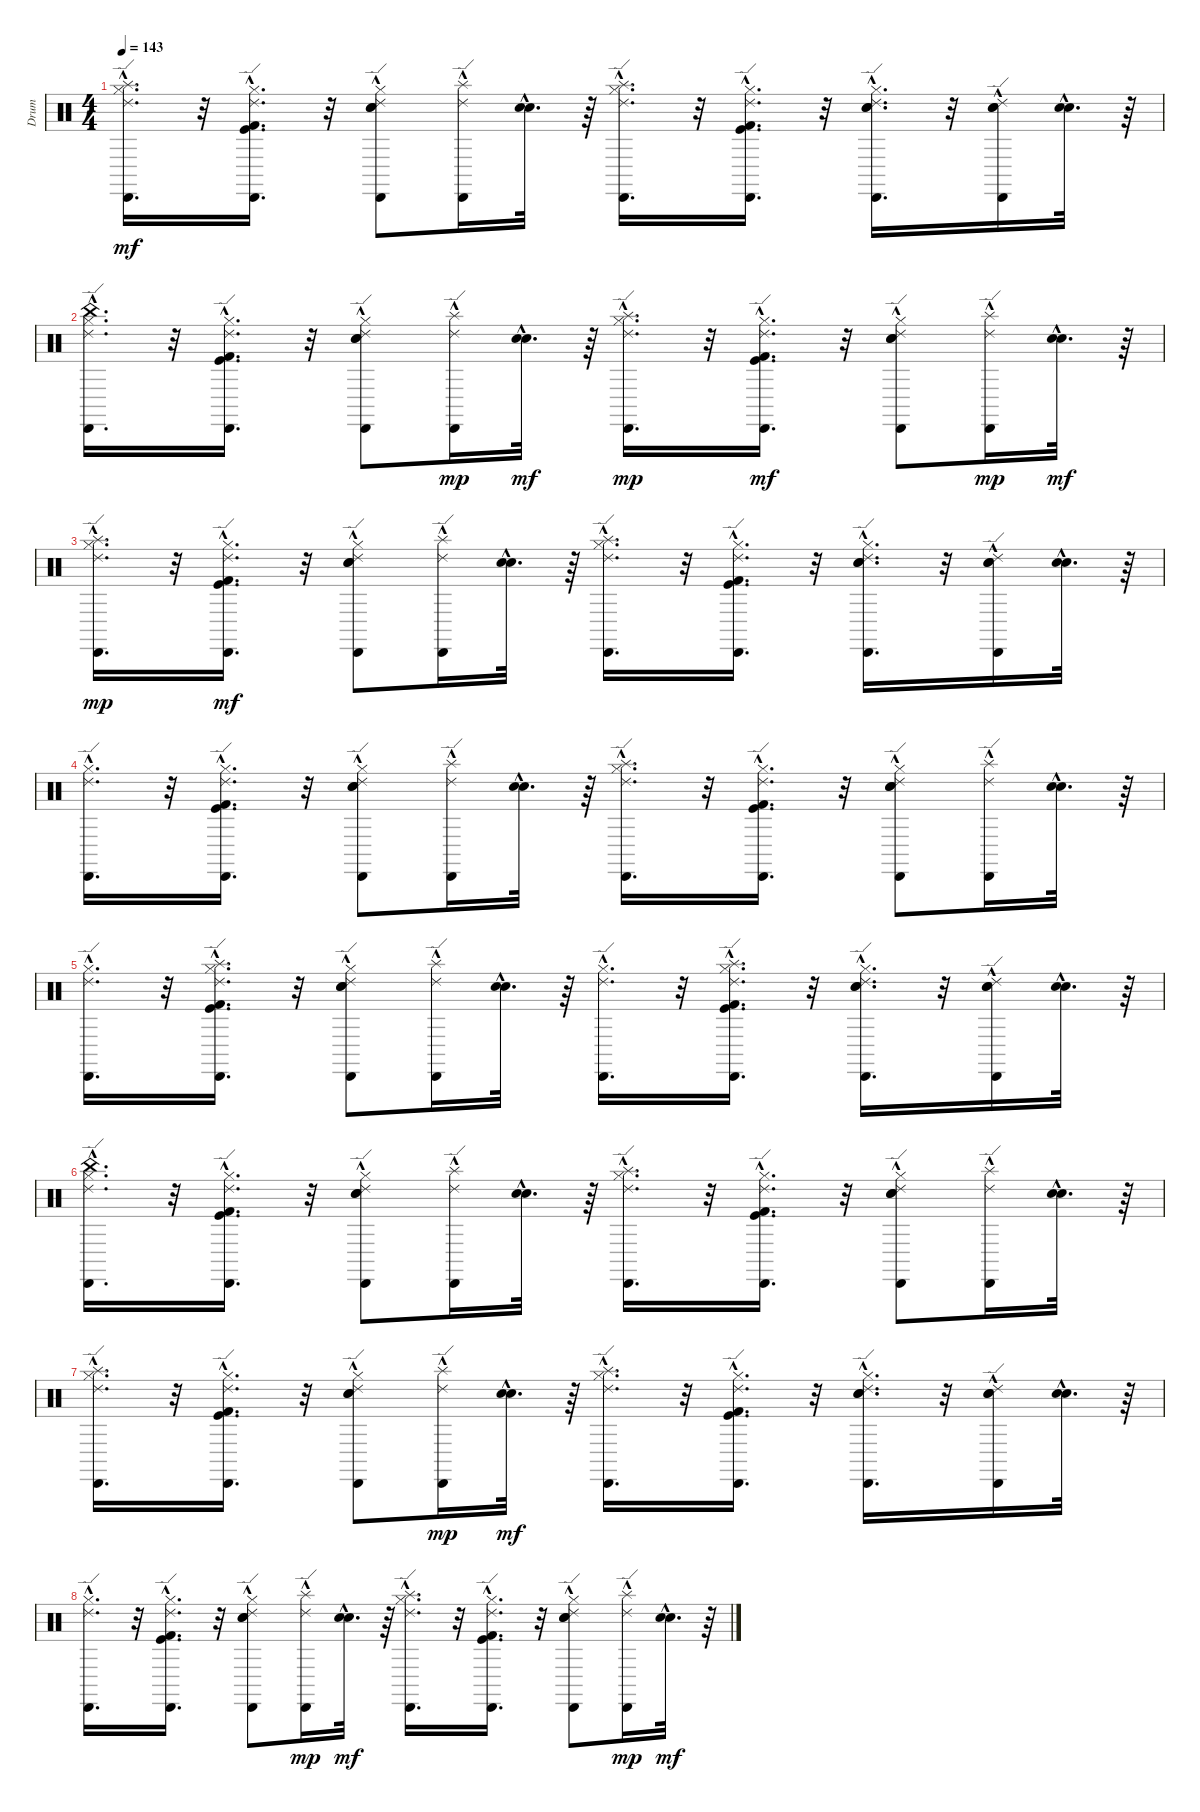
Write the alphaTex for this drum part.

\track ("Drum" "Drum") {instrument percussion}
\staff {score}
\articulation defaults
\ts (4 4)
\tempo 143
\clef neutral
\ks c
("Ride (edge) 2"{hac} "Cabasa (hit)"{hac} "Splash (hit)"{hac} "Hi-Hat (closed)"{hac}).16{d dy mf} r.32 ("Ride (edge) 2"{hac} "Cabasa (hit)"{hac} "Kick (hit) 2"{hac} "Kick (hit)"{hac} "Hi-Hat (closed)"{hac}).16{d} r.32 ("Ride (edge) 2"{hac} "Cabasa (hit)"{hac} "Electric Snare (hit)" "Snare (hit) 2" "Hi-Hat (closed)").8 ("Splash (hit)"{hac} "Ride (edge) 2"{hac} "Cabasa (hit)"{hac}).16 ("Electric Snare (hit)"{hac} "Snare (hit) 2"{hac}).32{d} r.64 ("Splash (hit)"{hac} "Ride (edge) 2"{hac} "Cabasa (hit)"{hac} "Hi-Hat (closed)"{hac}).16{d} r.32 ("Ride (edge) 2"{hac} "Cabasa (hit)"{hac} "Kick (hit) 2"{hac} "Kick (hit)"{hac} "Hi-Hat (closed)"{hac}).16{d} r.32 ("Ride (edge) 2"{hac} "Cabasa (hit)"{hac} "Electric Snare (hit)"{hac} "Snare (hit) 2"{hac} "Hi-Hat (closed)"{hac}).16{d} r.32 ("Ride (edge) 2"{hac} "Cabasa (hit)"{hac} "Electric Snare (hit)"{hac} "Snare (hit) 2"{hac}).16 ("Electric Snare (hit)"{hac} "Snare (hit) 2"{hac}).32{d} r.64 |
("Hi-Hat (closed)"{hac} "Cabasa (hit)"{hac} "Ride (edge) 2"{hac} "China (hit)"{hac}).16{d} r.32 ("Hi-Hat (closed)"{hac} "Kick (hit)"{hac} "Cabasa (hit)"{hac} "Kick (hit) 2"{hac} "Ride (edge) 2"{hac}).16{d} r.32 ("Hi-Hat (closed)" "Snare (hit) 2" "Cabasa (hit)"{hac} "Electric Snare (hit)" "Ride (edge) 2"{hac}).8 ("Cabasa (hit)"{hac} "Ride (edge) 2"{hac} "Splash (hit)"{hac}).16{dy mp} ("Snare (hit) 2"{hac} "Electric Snare (hit)"{hac}).32{d dy mf} r.64 ("Hi-Hat (closed)"{hac} "Cabasa (hit)"{hac} "Ride (edge) 2"{hac} "Splash (hit)"{hac}).16{d dy mp} r.32 ("Hi-Hat (closed)"{hac} "Kick (hit)"{hac} "Cabasa (hit)"{hac} "Kick (hit) 2"{hac} "Ride (edge) 2"{hac}).16{d dy mf} r.32 ("Hi-Hat (closed)" "Snare (hit) 2" "Cabasa (hit)"{hac} "Electric Snare (hit)" "Ride (edge) 2"{hac}).8 ("Cabasa (hit)"{hac} "Ride (edge) 2"{hac} "Splash (hit)"{hac}).16{dy mp} ("Snare (hit) 2"{hac} "Electric Snare (hit)"{hac}).32{d dy mf} r.64 |
("Hi-Hat (closed)"{hac} "Ride (edge) 2"{hac} "Cabasa (hit)"{hac} "Splash (hit)"{hac}).16{d dy mp} r.32 ("Kick (hit)"{hac} "Hi-Hat (closed)"{hac} "Kick (hit) 2"{hac} "Ride (edge) 2"{hac} "Cabasa (hit)"{hac}).16{d dy mf} r.32 ("Snare (hit) 2" "Hi-Hat (closed)" "Electric Snare (hit)" "Ride (edge) 2"{hac} "Cabasa (hit)"{hac}).8 ("Splash (hit)"{hac} "Ride (edge) 2"{hac} "Cabasa (hit)"{hac}).16 ("Snare (hit) 2"{hac} "Electric Snare (hit)"{hac}).32{d} r.64 ("Hi-Hat (closed)"{hac} "Splash (hit)"{hac} "Ride (edge) 2"{hac} "Cabasa (hit)"{hac}).16{d} r.32 ("Kick (hit)"{hac} "Hi-Hat (closed)"{hac} "Kick (hit) 2"{hac} "Ride (edge) 2"{hac} "Cabasa (hit)"{hac}).16{d} r.32 ("Snare (hit) 2"{hac} "Hi-Hat (closed)"{hac} "Electric Snare (hit)"{hac} "Ride (edge) 2"{hac} "Cabasa (hit)"{hac}).16{d} r.32 ("Snare (hit) 2"{hac} "Electric Snare (hit)"{hac} "Ride (edge) 2"{hac} "Cabasa (hit)"{hac}).16 ("Snare (hit) 2"{hac} "Electric Snare (hit)"{hac}).32{d} r.64 |
("Hi-Hat (closed)"{hac} "Ride (edge) 2"{hac} "Cabasa (hit)"{hac}).16{d} r.32 ("Hi-Hat (closed)"{hac} "Kick (hit)"{hac} "Kick (hit) 2"{hac} "Ride (edge) 2"{hac} "Cabasa (hit)"{hac}).16{d} r.32 ("Hi-Hat (closed)" "Snare (hit) 2" "Electric Snare (hit)" "Ride (edge) 2"{hac} "Cabasa (hit)"{hac}).8 ("Splash (hit)"{hac} "Ride (edge) 2"{hac} "Cabasa (hit)"{hac}).16 ("Snare (hit) 2"{hac} "Electric Snare (hit)"{hac}).32{d} r.64 ("Hi-Hat (closed)"{hac} "Splash (hit)"{hac} "Ride (edge) 2"{hac} "Cabasa (hit)"{hac}).16{d} r.32 ("Hi-Hat (closed)"{hac} "Kick (hit)"{hac} "Kick (hit) 2"{hac} "Ride (edge) 2"{hac} "Cabasa (hit)"{hac}).16{d} r.32 ("Hi-Hat (closed)" "Snare (hit) 2" "Electric Snare (hit)" "Ride (edge) 2"{hac} "Cabasa (hit)"{hac}).8 ("Splash (hit)"{hac} "Ride (edge) 2"{hac} "Cabasa (hit)"{hac}).16 ("Snare (hit) 2"{hac} "Electric Snare (hit)"{hac}).32{d} r.64 |
("Hi-Hat (closed)"{hac} "Cabasa (hit)"{hac} "Ride (edge) 2"{hac}).16{d} r.32 ("Splash (hit)"{hac} "Hi-Hat (closed)"{hac} "Kick (hit)"{hac} "Kick (hit) 2"{hac} "Cabasa (hit)"{hac} "Ride (edge) 2"{hac}).16{d} r.32 ("Hi-Hat (closed)" "Snare (hit) 2" "Electric Snare (hit)" "Cabasa (hit)"{hac} "Ride (edge) 2"{hac}).8 ("Splash (hit)"{hac} "Cabasa (hit)"{hac} "Ride (edge) 2"{hac}).16 ("Snare (hit) 2"{hac} "Electric Snare (hit)"{hac}).32{d} r.64 ("Hi-Hat (closed)"{hac} "Cabasa (hit)"{hac} "Ride (edge) 2"{hac}).16{d} r.32 ("Splash (hit)"{hac} "Hi-Hat (closed)"{hac} "Kick (hit)"{hac} "Kick (hit) 2"{hac} "Cabasa (hit)"{hac} "Ride (edge) 2"{hac}).16{d} r.32 ("Hi-Hat (closed)"{hac} "Snare (hit) 2"{hac} "Electric Snare (hit)"{hac} "Cabasa (hit)"{hac} "Ride (edge) 2"{hac}).16{d} r.32 ("Snare (hit) 2"{hac} "Electric Snare (hit)"{hac} "Cabasa (hit)"{hac} "Ride (edge) 2"{hac}).16 ("Snare (hit) 2"{hac} "Electric Snare (hit)"{hac}).32{d} r.64 |
("China (hit)"{hac} "Ride (edge) 2"{hac} "Cabasa (hit)"{hac} "Hi-Hat (closed)"{hac}).16{d} r.32 ("Ride (edge) 2"{hac} "Kick (hit) 2"{hac} "Cabasa (hit)"{hac} "Kick (hit)"{hac} "Hi-Hat (closed)"{hac}).16{d} r.32 ("Ride (edge) 2"{hac} "Electric Snare (hit)" "Cabasa (hit)"{hac} "Snare (hit) 2" "Hi-Hat (closed)").8 ("Splash (hit)"{hac} "Ride (edge) 2"{hac} "Cabasa (hit)"{hac}).16 ("Electric Snare (hit)"{hac} "Snare (hit) 2"{hac}).32{d} r.64 ("Splash (hit)"{hac} "Ride (edge) 2"{hac} "Cabasa (hit)"{hac} "Hi-Hat (closed)"{hac}).16{d} r.32 ("Ride (edge) 2"{hac} "Kick (hit) 2"{hac} "Cabasa (hit)"{hac} "Kick (hit)"{hac} "Hi-Hat (closed)"{hac}).16{d} r.32 ("Ride (edge) 2"{hac} "Electric Snare (hit)" "Cabasa (hit)"{hac} "Snare (hit) 2" "Hi-Hat (closed)").8 ("Splash (hit)"{hac} "Ride (edge) 2"{hac} "Cabasa (hit)"{hac}).16 ("Electric Snare (hit)"{hac} "Snare (hit) 2"{hac}).32{d} r.64 |
("Splash (hit)"{hac} "Cabasa (hit)"{hac} "Ride (edge) 2"{hac} "Hi-Hat (closed)"{hac}).16{d} r.32 ("Cabasa (hit)"{hac} "Ride (edge) 2"{hac} "Kick (hit) 2"{hac} "Hi-Hat (closed)"{hac} "Kick (hit)"{hac}).16{d} r.32 ("Cabasa (hit)"{hac} "Ride (edge) 2"{hac} "Electric Snare (hit)" "Hi-Hat (closed)" "Snare (hit) 2").8 ("Cabasa (hit)"{hac} "Ride (edge) 2"{hac} "Splash (hit)"{hac}).16{dy mp} ("Electric Snare (hit)"{hac} "Snare (hit) 2"{hac}).32{d dy mf} r.64 ("Cabasa (hit)"{hac} "Ride (edge) 2"{hac} "Splash (hit)"{hac} "Hi-Hat (closed)"{hac}).16{d} r.32 ("Cabasa (hit)"{hac} "Ride (edge) 2"{hac} "Kick (hit) 2"{hac} "Hi-Hat (closed)"{hac} "Kick (hit)"{hac}).16{d} r.32 ("Cabasa (hit)"{hac} "Ride (edge) 2"{hac} "Electric Snare (hit)"{hac} "Hi-Hat (closed)"{hac} "Snare (hit) 2"{hac}).16{d} r.32 ("Cabasa (hit)"{hac} "Ride (edge) 2"{hac} "Electric Snare (hit)"{hac} "Snare (hit) 2"{hac}).16 ("Electric Snare (hit)"{hac} "Snare (hit) 2"{hac}).32{d} r.64 |
("Cabasa (hit)"{hac} "Ride (edge) 2"{hac} "Hi-Hat (closed)"{hac}).16{d} r.32 ("Cabasa (hit)"{hac} "Ride (edge) 2"{hac} "Kick (hit) 2"{hac} "Kick (hit)"{hac} "Hi-Hat (closed)"{hac}).16{d} r.32 ("Cabasa (hit)"{hac} "Ride (edge) 2"{hac} "Electric Snare (hit)" "Snare (hit) 2" "Hi-Hat (closed)").8 ("Cabasa (hit)"{hac} "Ride (edge) 2"{hac} "Splash (hit)"{hac}).16{dy mp} ("Electric Snare (hit)"{hac} "Snare (hit) 2"{hac}).32{d dy mf} r.64 ("Cabasa (hit)"{hac} "Ride (edge) 2"{hac} "Splash (hit)"{hac} "Hi-Hat (closed)"{hac}).16{d} r.32 ("Cabasa (hit)"{hac} "Ride (edge) 2"{hac} "Kick (hit) 2"{hac} "Kick (hit)"{hac} "Hi-Hat (closed)"{hac}).16{d} r.32 ("Cabasa (hit)"{hac} "Ride (edge) 2"{hac} "Electric Snare (hit)" "Snare (hit) 2" "Hi-Hat (closed)").8 ("Cabasa (hit)"{hac} "Ride (edge) 2"{hac} "Splash (hit)"{hac}).16{dy mp} ("Electric Snare (hit)"{hac} "Snare (hit) 2"{hac}).32{d dy mf} r.64
